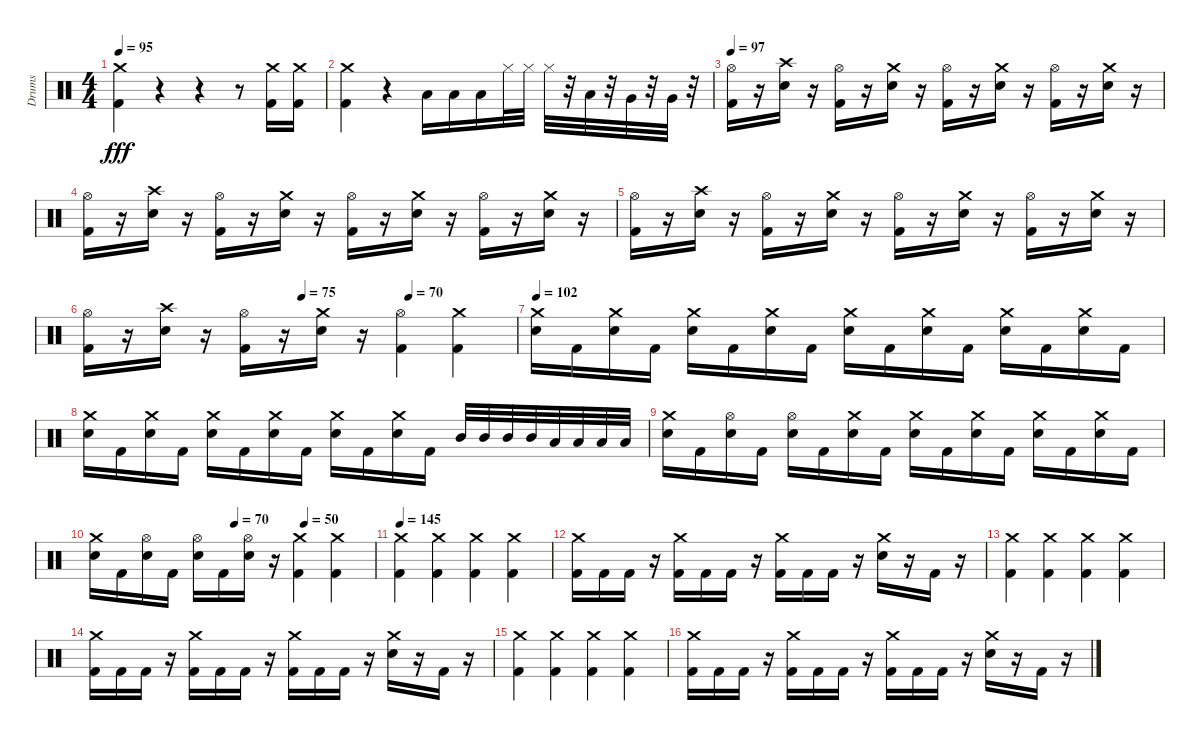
\track ("Drums" "Drums") {instrument percussion}
\staff {score}
\articulation defaults
\ts (4 4)
\tempo 95
\clef neutral
\ks c
("Crash medium (hit)" "Kick (hit) 2").4{dy fff} r.4 r.4 r.8 ("Crash medium (hit)" "Kick (hit) 2").16 ("Crash medium (hit)" "Kick (hit) 2").16 |
("Crash medium (hit)" "Kick (hit) 2").4 r.4 "Low Tom (hit)".16 "Low Tom (hit)".16 "Low Tom (hit)".16 "Hi-Hat (closed)".32 "Hi-Hat (closed)".32 "Hi-Hat (closed)".32 r.32 "Low Tom (hit)".32 r.32 "Very Low Tom (hit)".32 r.32 "Very Low Tom (hit)".32 r.32 |
\tempo 97
("Hi-Hat (open)" "Kick (hit) 2").16 r.16 ("Crash high (hit)" "Electric Snare (hit)").16 r.16 ("Hi-Hat (open)" "Kick (hit) 2").16 r.16 ("Crash medium (hit)" "Electric Snare (hit)").16 r.16 ("Hi-Hat (open)" "Kick (hit) 2").16 r.16 ("Crash medium (hit)" "Electric Snare (hit)").16 r.16 ("Hi-Hat (open)" "Kick (hit) 2").16 r.16 ("Crash medium (hit)" "Electric Snare (hit)").16 r.16 |
("Hi-Hat (open)" "Kick (hit) 2").16 r.16 ("Crash high (hit)" "Electric Snare (hit)").16 r.16 ("Hi-Hat (open)" "Kick (hit) 2").16 r.16 ("Crash medium (hit)" "Electric Snare (hit)").16 r.16 ("Hi-Hat (open)" "Kick (hit) 2").16 r.16 ("Crash medium (hit)" "Electric Snare (hit)").16 r.16 ("Hi-Hat (open)" "Kick (hit) 2").16 r.16 ("Crash medium (hit)" "Electric Snare (hit)").16 r.16 |
("Hi-Hat (open)" "Kick (hit) 2").16 r.16 ("Crash high (hit)" "Electric Snare (hit)").16 r.16 ("Hi-Hat (open)" "Kick (hit) 2").16 r.16 ("Crash medium (hit)" "Electric Snare (hit)").16 r.16 ("Hi-Hat (open)" "Kick (hit) 2").16 r.16 ("Crash medium (hit)" "Electric Snare (hit)").16 r.16 ("Hi-Hat (open)" "Kick (hit) 2").16 r.16 ("Crash medium (hit)" "Electric Snare (hit)").16 r.16 |
\tempo (75 0.5)
\tempo (70 0.75)
("Hi-Hat (open)" "Kick (hit) 2").16 r.16 ("Crash high (hit)" "Electric Snare (hit)").16 r.16 ("Hi-Hat (open)" "Kick (hit) 2").16 r.16 ("Crash medium (hit)" "Electric Snare (hit)").16 r.16 ("Hi-Hat (open)" "Kick (hit) 2").4 ("Crash medium (hit)" "Kick (hit) 2").4 |
\tempo 102
("Crash medium (hit)" "Electric Snare (hit)").16 "Kick (hit) 2".16 ("Crash medium (hit)" "Electric Snare (hit)").16 "Kick (hit) 2".16 ("Crash medium (hit)" "Electric Snare (hit)").16 "Kick (hit) 2".16 ("Crash medium (hit)" "Electric Snare (hit)").16 "Kick (hit) 2".16 ("Crash medium (hit)" "Electric Snare (hit)").16 "Kick (hit) 2".16 ("Crash medium (hit)" "Electric Snare (hit)").16 "Kick (hit) 2".16 ("Crash medium (hit)" "Electric Snare (hit)").16 "Kick (hit) 2".16 ("Crash medium (hit)" "Electric Snare (hit)").16 "Kick (hit) 2".16 |
("Crash medium (hit)" "Electric Snare (hit)").16 "Kick (hit) 2".16 ("Crash medium (hit)" "Electric Snare (hit)").16 "Kick (hit) 2".16 ("Crash medium (hit)" "Electric Snare (hit)").16 "Kick (hit) 2".16 ("Crash medium (hit)" "Electric Snare (hit)").16 "Kick (hit) 2".16 ("Crash medium (hit)" "Electric Snare (hit)").16 "Kick (hit) 2".16 ("Crash medium (hit)" "Electric Snare (hit)").16 "Kick (hit) 2".16 "Mid Tom (hit)".32 "Mid Tom (hit)".32 "Mid Tom (hit)".32 "Mid Tom (hit)".32 "Low Tom (hit)".32 "Low Tom (hit)".32 "Low Tom (hit)".32 "Low Tom (hit)".32 |
("Crash medium (hit)" "Electric Snare (hit)").16 "Kick (hit) 2".16 ("Hi-Hat (open)" "Electric Snare (hit)").16 "Kick (hit) 2".16 ("Hi-Hat (open)" "Electric Snare (hit)").16 "Kick (hit) 2".16 ("Crash medium (hit)" "Electric Snare (hit)").16 "Kick (hit) 2".16 ("Crash medium (hit)" "Electric Snare (hit)").16 "Kick (hit) 2".16 ("Crash medium (hit)" "Electric Snare (hit)").16 "Kick (hit) 2".16 ("Crash medium (hit)" "Electric Snare (hit)").16 "Kick (hit) 2".16 ("Crash medium (hit)" "Electric Snare (hit)").16 "Kick (hit) 2".16 |
\tempo (70 0.5)
\tempo (50 0.75)
("Crash medium (hit)" "Electric Snare (hit)").16 "Kick (hit) 2".16 ("Hi-Hat (open)" "Electric Snare (hit)").16 "Kick (hit) 2".16 ("Hi-Hat (open)" "Electric Snare (hit)").16 "Kick (hit) 2".16 ("Hi-Hat (open)" "Electric Snare (hit)").16 r.16 ("Crash medium (hit)" "Kick (hit) 2").4 ("Crash medium (hit)" "Kick (hit) 2").4 |
\tempo 145
("Crash medium (hit)" "Kick (hit) 2").4 ("Crash medium (hit)" "Kick (hit) 2").4 ("Crash medium (hit)" "Kick (hit) 2").4 ("Crash medium (hit)" "Kick (hit) 2").4 |
("Crash medium (hit)" "Kick (hit) 2").16 "Kick (hit) 2".16 "Kick (hit) 2".16 r.16 ("Crash medium (hit)" "Kick (hit) 2").16 "Kick (hit) 2".16 "Kick (hit) 2".16 r.16 ("Crash medium (hit)" "Kick (hit) 2").16 "Kick (hit) 2".16 "Kick (hit) 2".16 r.16 ("Crash medium (hit)" "Electric Snare (hit)").16 r.16 "Kick (hit) 2".16 r.16 |
("Crash medium (hit)" "Kick (hit) 2").4 ("Crash medium (hit)" "Kick (hit) 2").4 ("Crash medium (hit)" "Kick (hit) 2").4 ("Crash medium (hit)" "Kick (hit) 2").4 |
("Crash medium (hit)" "Kick (hit) 2").16 "Kick (hit) 2".16 "Kick (hit) 2".16 r.16 ("Crash medium (hit)" "Kick (hit) 2").16 "Kick (hit) 2".16 "Kick (hit) 2".16 r.16 ("Crash medium (hit)" "Kick (hit) 2").16 "Kick (hit) 2".16 "Kick (hit) 2".16 r.16 ("Crash medium (hit)" "Electric Snare (hit)").16 r.16 "Kick (hit) 2".16 r.16 |
("Crash medium (hit)" "Kick (hit) 2").4 ("Crash medium (hit)" "Kick (hit) 2").4 ("Crash medium (hit)" "Kick (hit) 2").4 ("Crash medium (hit)" "Kick (hit) 2").4 |
("Crash medium (hit)" "Kick (hit) 2").16 "Kick (hit) 2".16 "Kick (hit) 2".16 r.16 ("Crash medium (hit)" "Kick (hit) 2").16 "Kick (hit) 2".16 "Kick (hit) 2".16 r.16 ("Crash medium (hit)" "Kick (hit) 2").16 "Kick (hit) 2".16 "Kick (hit) 2".16 r.16 ("Crash medium (hit)" "Electric Snare (hit)").16 r.16 "Kick (hit) 2".16 r.16
